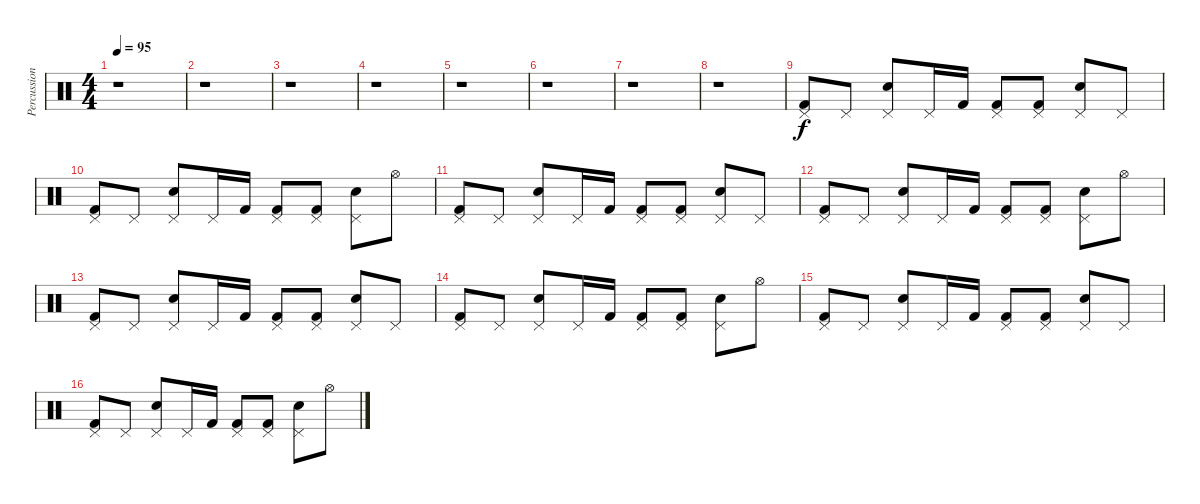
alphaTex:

\track ("Percussion" "Percussion") {instrument percussion}
\staff {score}
\articulation defaults
\ts (4 4)
\tempo 95
\clef neutral
\ks c
r.1{dy f} |
r.1 |
r.1 |
r.1 |
r.1 |
r.1 |
r.1 |
r.1 |
("Pedal Hi-Hat (hit)" "Kick (hit) 2").8 "Pedal Hi-Hat (hit)".8 ("Pedal Hi-Hat (hit)" "Snare (hit) 2").8 "Pedal Hi-Hat (hit)".16 "Kick (hit) 2".16 ("Pedal Hi-Hat (hit)" "Kick (hit) 2").8 ("Pedal Hi-Hat (hit)" "Kick (hit) 2").8 ("Pedal Hi-Hat (hit)" "Snare (hit) 2").8 "Pedal Hi-Hat (hit)".8 |
("Pedal Hi-Hat (hit)" "Kick (hit) 2").8 "Pedal Hi-Hat (hit)".8 ("Pedal Hi-Hat (hit)" "Snare (hit) 2").8 "Pedal Hi-Hat (hit)".16 "Kick (hit) 2".16 ("Pedal Hi-Hat (hit)" "Kick (hit) 2").8 ("Pedal Hi-Hat (hit)" "Kick (hit) 2").8 ("Pedal Hi-Hat (hit)" "Snare (hit) 2").8 "Hi-Hat (open)".8 |
("Pedal Hi-Hat (hit)" "Kick (hit) 2").8 "Pedal Hi-Hat (hit)".8 ("Pedal Hi-Hat (hit)" "Snare (hit) 2").8 "Pedal Hi-Hat (hit)".16 "Kick (hit) 2".16 ("Pedal Hi-Hat (hit)" "Kick (hit) 2").8 ("Pedal Hi-Hat (hit)" "Kick (hit) 2").8 ("Pedal Hi-Hat (hit)" "Snare (hit) 2").8 "Pedal Hi-Hat (hit)".8 |
("Pedal Hi-Hat (hit)" "Kick (hit) 2").8 "Pedal Hi-Hat (hit)".8 ("Pedal Hi-Hat (hit)" "Snare (hit) 2").8 "Pedal Hi-Hat (hit)".16 "Kick (hit) 2".16 ("Pedal Hi-Hat (hit)" "Kick (hit) 2").8 ("Pedal Hi-Hat (hit)" "Kick (hit) 2").8 ("Pedal Hi-Hat (hit)" "Snare (hit) 2").8 "Hi-Hat (open)".8 |
("Pedal Hi-Hat (hit)" "Kick (hit) 2").8 "Pedal Hi-Hat (hit)".8 ("Pedal Hi-Hat (hit)" "Snare (hit) 2").8 "Pedal Hi-Hat (hit)".16 "Kick (hit) 2".16 ("Pedal Hi-Hat (hit)" "Kick (hit) 2").8 ("Pedal Hi-Hat (hit)" "Kick (hit) 2").8 ("Pedal Hi-Hat (hit)" "Snare (hit) 2").8 "Pedal Hi-Hat (hit)".8 |
("Pedal Hi-Hat (hit)" "Kick (hit) 2").8 "Pedal Hi-Hat (hit)".8 ("Pedal Hi-Hat (hit)" "Snare (hit) 2").8 "Pedal Hi-Hat (hit)".16 "Kick (hit) 2".16 ("Pedal Hi-Hat (hit)" "Kick (hit) 2").8 ("Pedal Hi-Hat (hit)" "Kick (hit) 2").8 ("Pedal Hi-Hat (hit)" "Snare (hit) 2").8 "Hi-Hat (open)".8 |
("Pedal Hi-Hat (hit)" "Kick (hit) 2").8 "Pedal Hi-Hat (hit)".8 ("Pedal Hi-Hat (hit)" "Snare (hit) 2").8 "Pedal Hi-Hat (hit)".16 "Kick (hit) 2".16 ("Pedal Hi-Hat (hit)" "Kick (hit) 2").8 ("Pedal Hi-Hat (hit)" "Kick (hit) 2").8 ("Pedal Hi-Hat (hit)" "Snare (hit) 2").8 "Pedal Hi-Hat (hit)".8 |
("Pedal Hi-Hat (hit)" "Kick (hit) 2").8 "Pedal Hi-Hat (hit)".8 ("Pedal Hi-Hat (hit)" "Snare (hit) 2").8 "Pedal Hi-Hat (hit)".16 "Kick (hit) 2".16 ("Pedal Hi-Hat (hit)" "Kick (hit) 2").8 ("Pedal Hi-Hat (hit)" "Kick (hit) 2").8 ("Pedal Hi-Hat (hit)" "Snare (hit) 2").8 "Hi-Hat (open)".8
